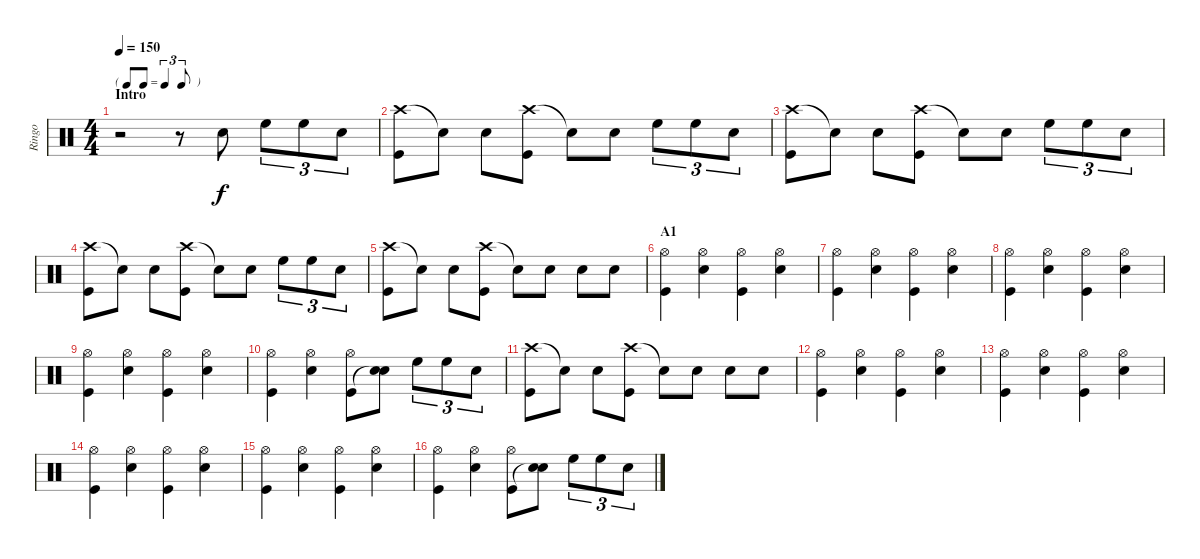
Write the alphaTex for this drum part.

\track ("Ringo" "Ringo") {instrument percussion}
\staff {score}
\articulation defaults
\ts (4 4)
\tf triplet8th
\section ("" "Intro")
\tempo 150
\clef neutral
\ks c
r.2{dy f} r.8 "Snare (hit) 2".8 "High Floor Tom (hit)".8{tu (3 2)} "High Floor Tom (hit)".8{tu (3 2)} "Snare (hit) 2".8{tu (3 2)} |
("Crash high (hit)" "Kick (hit)").8 "Snare (hit)"{t}.8 "Snare (hit) 2".8 ("Crash high (hit)" "Kick (hit)").8 "Snare (hit)"{t}.8 "Snare (hit) 2".8 "High Floor Tom (hit)".8{tu (3 2)} "High Floor Tom (hit)".8{tu (3 2)} "Snare (hit) 2".8{tu (3 2)} |
("Crash high (hit)" "Kick (hit)").8 "Snare (hit)"{t}.8 "Snare (hit) 2".8 ("Crash high (hit)" "Kick (hit)").8 "Snare (hit)"{t}.8 "Snare (hit) 2".8 "High Floor Tom (hit)".8{tu (3 2)} "High Floor Tom (hit)".8{tu (3 2)} "Snare (hit) 2".8{tu (3 2)} |
("Crash high (hit)" "Kick (hit)").8 "Snare (hit)"{t}.8 "Snare (hit) 2".8 ("Crash high (hit)" "Kick (hit)").8 "Snare (hit)"{t}.8 "Snare (hit) 2".8 "High Floor Tom (hit)".8{tu (3 2)} "High Floor Tom (hit)".8{tu (3 2)} "Snare (hit) 2".8{tu (3 2)} |
("Crash high (hit)" "Kick (hit)").8 "Snare (hit)"{t}.8 "Snare (hit) 2".8 ("Crash high (hit)" "Kick (hit)").8 "Snare (hit)"{t}.8 "Snare (hit) 2".8 "Snare (hit) 2".8 "Snare (hit) 2".8 |
\section ("" "A1")
("Hi-Hat (open)" "Kick (hit)").4 ("Hi-Hat (open)" "Snare (hit) 2").4 ("Hi-Hat (open)" "Kick (hit)").4 ("Hi-Hat (open)" "Snare (hit) 2").4 |
("Hi-Hat (open)" "Kick (hit)").4 ("Hi-Hat (open)" "Snare (hit) 2").4 ("Hi-Hat (open)" "Kick (hit)").4 ("Hi-Hat (open)" "Snare (hit) 2").4 |
("Hi-Hat (open)" "Kick (hit)").4 ("Hi-Hat (open)" "Snare (hit) 2").4 ("Hi-Hat (open)" "Kick (hit)").4 ("Hi-Hat (open)" "Snare (hit) 2").4 |
("Hi-Hat (open)" "Kick (hit)").4 ("Hi-Hat (open)" "Snare (hit) 2").4 ("Hi-Hat (open)" "Kick (hit)").4 ("Hi-Hat (open)" "Snare (hit) 2").4 |
("Hi-Hat (open)" "Kick (hit)").4 ("Hi-Hat (open)" "Snare (hit) 2").4 ("Hi-Hat (open)" "Kick (hit)").8 ("Snare (hit) 2" "Snare (hit)"{t}).8 "High Floor Tom (hit)".8{tu (3 2)} "High Floor Tom (hit)".8{tu (3 2)} "Snare (hit) 2".8{tu (3 2)} |
("Crash high (hit)" "Kick (hit)").8 "Snare (hit)"{t}.8 "Snare (hit) 2".8 ("Crash high (hit)" "Kick (hit)").8 "Snare (hit)"{t}.8 "Snare (hit) 2".8 "Snare (hit) 2".8 "Snare (hit) 2".8 |
("Hi-Hat (open)" "Kick (hit)").4 ("Hi-Hat (open)" "Snare (hit) 2").4 ("Hi-Hat (open)" "Kick (hit)").4 ("Hi-Hat (open)" "Snare (hit) 2").4 |
("Hi-Hat (open)" "Kick (hit)").4 ("Hi-Hat (open)" "Snare (hit) 2").4 ("Hi-Hat (open)" "Kick (hit)").4 ("Hi-Hat (open)" "Snare (hit) 2").4 |
("Hi-Hat (open)" "Kick (hit)").4 ("Hi-Hat (open)" "Snare (hit) 2").4 ("Hi-Hat (open)" "Kick (hit)").4 ("Hi-Hat (open)" "Snare (hit) 2").4 |
("Hi-Hat (open)" "Kick (hit)").4 ("Hi-Hat (open)" "Snare (hit) 2").4 ("Hi-Hat (open)" "Kick (hit)").4 ("Hi-Hat (open)" "Snare (hit) 2").4 |
("Hi-Hat (open)" "Kick (hit)").4 ("Hi-Hat (open)" "Snare (hit) 2").4 ("Hi-Hat (open)" "Kick (hit)").8 ("Snare (hit) 2" "Snare (hit)"{t}).8 "High Floor Tom (hit)".8{tu (3 2)} "High Floor Tom (hit)".8{tu (3 2)} "Snare (hit) 2".8{tu (3 2)}
